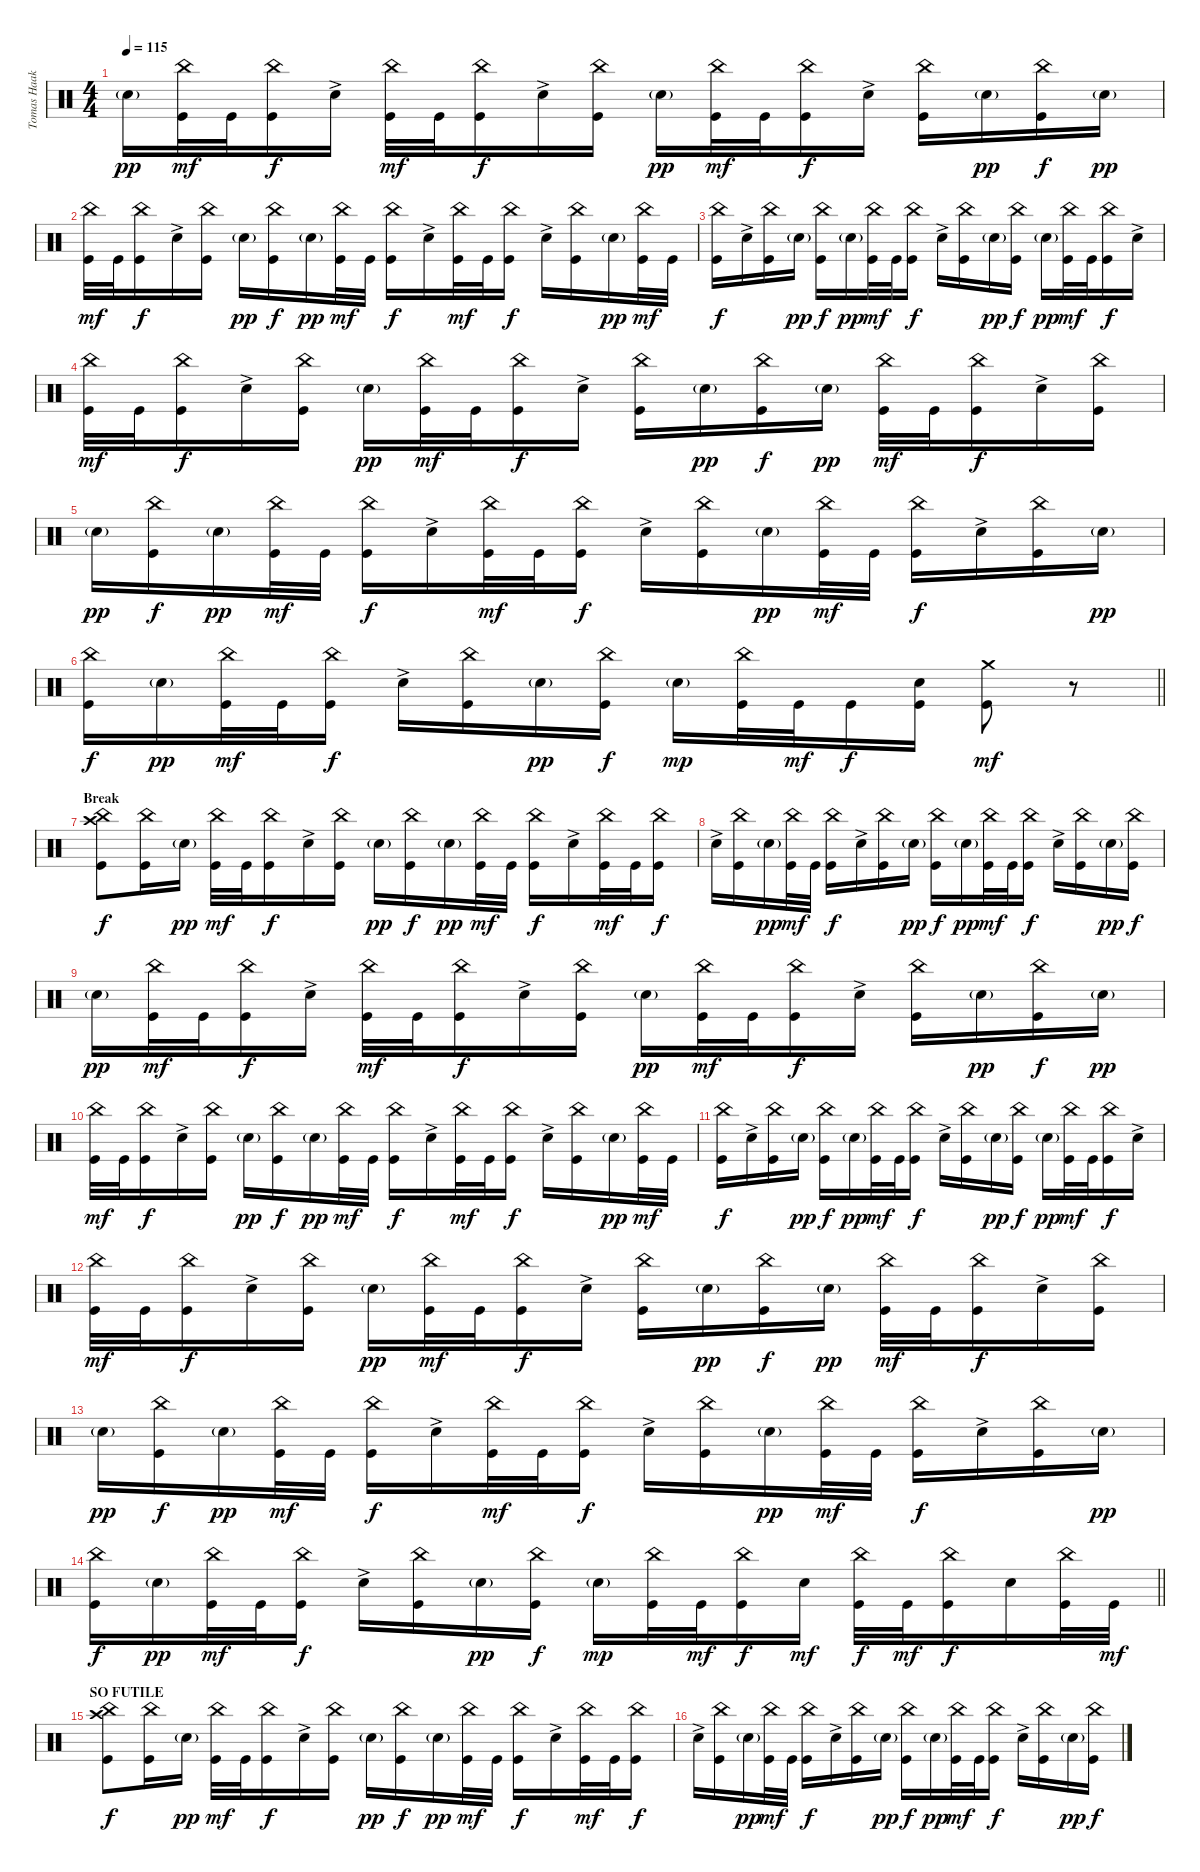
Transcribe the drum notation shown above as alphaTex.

\track ("Tomas Haake (Drums)" "Tomas Haak") {instrument percussion}
\staff {score}
\articulation defaults
\ts (4 4)
\tempo 115
\clef neutral
\ks c "Electric Snare (hit)"{g}.16{dy pp}
("China (hit)" "Kick (hit)").32{dy mf} "Kick (hit)".32 ("China (hit)" "Kick (hit)").16{dy f} "Electric Snare (hit)"{ac}.16 ("China (hit)" "Kick (hit)").32{dy mf} "Kick (hit)".32 ("China (hit)" "Kick (hit)").16{dy f} "Electric Snare (hit)"{ac}.16 ("China (hit)" "Kick (hit)").16 "Electric Snare (hit)"{g}.16{dy pp} ("China (hit)" "Kick (hit)").32{dy mf} "Kick (hit)".32 ("China (hit)" "Kick (hit)").16{dy f} "Electric Snare (hit)"{ac}.16 ("China (hit)" "Kick (hit)").16 "Electric Snare (hit)"{g}.16{dy pp} ("China (hit)" "Kick (hit)").16{dy f} "Electric Snare (hit)"{g}.16{dy pp} |
("China (hit)" "Kick (hit)").32{dy mf} "Kick (hit)".32 ("China (hit)" "Kick (hit)").16{dy f} "Electric Snare (hit)"{ac}.16 ("China (hit)" "Kick (hit)").16 "Electric Snare (hit)"{g}.16{dy pp} ("China (hit)" "Kick (hit)").16{dy f} "Electric Snare (hit)"{g}.16{dy pp} ("China (hit)" "Kick (hit)").32{dy mf} "Kick (hit)".32 ("China (hit)" "Kick (hit)").16{dy f} "Electric Snare (hit)"{ac}.16 ("China (hit)" "Kick (hit)").32{dy mf} "Kick (hit)".32 ("China (hit)" "Kick (hit)").16{dy f} "Electric Snare (hit)"{ac}.16 ("China (hit)" "Kick (hit)").16 "Electric Snare (hit)"{g}.16{dy pp} ("China (hit)" "Kick (hit)").32{dy mf} "Kick (hit)".32 |
("China (hit)" "Kick (hit)").16{dy f} "Electric Snare (hit)"{ac}.16 ("China (hit)" "Kick (hit)").16 "Electric Snare (hit)"{g}.16{dy pp} ("China (hit)" "Kick (hit)").16{dy f} "Electric Snare (hit)"{g}.16{dy pp} ("China (hit)" "Kick (hit)").32{dy mf} "Kick (hit)".32 ("China (hit)" "Kick (hit)").16{dy f} "Electric Snare (hit)"{ac}.16 ("China (hit)" "Kick (hit)").16 "Electric Snare (hit)"{g}.16{dy pp} ("China (hit)" "Kick (hit)").16{dy f} "Electric Snare (hit)"{g}.16{dy pp} ("China (hit)" "Kick (hit)").32{dy mf} "Kick (hit)".32 ("China (hit)" "Kick (hit)").16{dy f} "Electric Snare (hit)"{ac}.16 |
("China (hit)" "Kick (hit)").32{dy mf} "Kick (hit)".32 ("China (hit)" "Kick (hit)").16{dy f} "Electric Snare (hit)"{ac}.16 ("China (hit)" "Kick (hit)").16 "Electric Snare (hit)"{g}.16{dy pp} ("China (hit)" "Kick (hit)").32{dy mf} "Kick (hit)".32 ("China (hit)" "Kick (hit)").16{dy f} "Electric Snare (hit)"{ac}.16 ("China (hit)" "Kick (hit)").16 "Electric Snare (hit)"{g}.16{dy pp} ("China (hit)" "Kick (hit)").16{dy f} "Electric Snare (hit)"{g}.16{dy pp} ("China (hit)" "Kick (hit)").32{dy mf} "Kick (hit)".32 ("China (hit)" "Kick (hit)").16{dy f} "Electric Snare (hit)"{ac}.16 ("China (hit)" "Kick (hit)").16 |
"Electric Snare (hit)"{g}.16{dy pp} ("China (hit)" "Kick (hit)").16{dy f} "Electric Snare (hit)"{g}.16{dy pp} ("China (hit)" "Kick (hit)").32{dy mf} "Kick (hit)".32 ("China (hit)" "Kick (hit)").16{dy f} "Electric Snare (hit)"{ac}.16 ("China (hit)" "Kick (hit)").32{dy mf} "Kick (hit)".32 ("China (hit)" "Kick (hit)").16{dy f} "Electric Snare (hit)"{ac}.16 ("China (hit)" "Kick (hit)").16 "Electric Snare (hit)"{g}.16{dy pp} ("China (hit)" "Kick (hit)").32{dy mf} "Kick (hit)".32 ("China (hit)" "Kick (hit)").16{dy f} "Electric Snare (hit)"{ac}.16 ("China (hit)" "Kick (hit)").16 "Electric Snare (hit)"{g}.16{dy pp} |
\barLineRight lightlight
("China (hit)" "Kick (hit)").16{dy f} "Electric Snare (hit)"{g}.16{dy pp} ("China (hit)" "Kick (hit)").32{dy mf} "Kick (hit)".32 ("China (hit)" "Kick (hit)").16{dy f} "Electric Snare (hit)"{ac}.16 ("China (hit)" "Kick (hit)").16 "Electric Snare (hit)"{g}.16{dy pp} ("China (hit)" "Kick (hit)").16{dy f} "Electric Snare (hit)"{g}.16{dy mp} ("China (hit)" "Kick (hit)").32 "Kick (hit)".32{dy mf} "Kick (hit)".16{dy f} ("Electric Snare (hit)" "Kick (hit)").16 ("Crash medium (hit)" "Kick (hit)").8{dy mf} r.8 |
\section ("" "Break")
("China (hit)" "Crash high (hit)" "Kick (hit)").8{dy f} ("China (hit)" "Kick (hit)").16 "Electric Snare (hit)"{g}.16{dy pp} ("China (hit)" "Kick (hit)").32{dy mf} "Kick (hit)".32 ("China (hit)" "Kick (hit)").16{dy f} "Electric Snare (hit)"{ac}.16 ("China (hit)" "Kick (hit)").16 "Electric Snare (hit)"{g}.16{dy pp} ("China (hit)" "Kick (hit)").16{dy f} "Electric Snare (hit)"{g}.16{dy pp} ("China (hit)" "Kick (hit)").32{dy mf} "Kick (hit)".32 ("China (hit)" "Kick (hit)").16{dy f} "Electric Snare (hit)"{ac}.16 ("China (hit)" "Kick (hit)").32{dy mf} "Kick (hit)".32 ("China (hit)" "Kick (hit)").16{dy f} |
"Electric Snare (hit)"{ac}.16 ("China (hit)" "Kick (hit)").16 "Electric Snare (hit)"{g}.16{dy pp} ("China (hit)" "Kick (hit)").32{dy mf} "Kick (hit)".32 ("China (hit)" "Kick (hit)").16{dy f} "Electric Snare (hit)"{ac}.16 ("China (hit)" "Kick (hit)").16 "Electric Snare (hit)"{g}.16{dy pp} ("China (hit)" "Kick (hit)").16{dy f} "Electric Snare (hit)"{g}.16{dy pp} ("China (hit)" "Kick (hit)").32{dy mf} "Kick (hit)".32 ("China (hit)" "Kick (hit)").16{dy f} "Electric Snare (hit)"{ac}.16 ("China (hit)" "Kick (hit)").16 "Electric Snare (hit)"{g}.16{dy pp} ("China (hit)" "Kick (hit)").16{dy f} |
"Electric Snare (hit)"{g}.16{dy pp} ("China (hit)" "Kick (hit)").32{dy mf} "Kick (hit)".32 ("China (hit)" "Kick (hit)").16{dy f} "Electric Snare (hit)"{ac}.16 ("China (hit)" "Kick (hit)").32{dy mf} "Kick (hit)".32 ("China (hit)" "Kick (hit)").16{dy f} "Electric Snare (hit)"{ac}.16 ("China (hit)" "Kick (hit)").16 "Electric Snare (hit)"{g}.16{dy pp} ("China (hit)" "Kick (hit)").32{dy mf} "Kick (hit)".32 ("China (hit)" "Kick (hit)").16{dy f} "Electric Snare (hit)"{ac}.16 ("China (hit)" "Kick (hit)").16 "Electric Snare (hit)"{g}.16{dy pp} ("China (hit)" "Kick (hit)").16{dy f} "Electric Snare (hit)"{g}.16{dy pp} |
("China (hit)" "Kick (hit)").32{dy mf} "Kick (hit)".32 ("China (hit)" "Kick (hit)").16{dy f} "Electric Snare (hit)"{ac}.16 ("China (hit)" "Kick (hit)").16 "Electric Snare (hit)"{g}.16{dy pp} ("China (hit)" "Kick (hit)").16{dy f} "Electric Snare (hit)"{g}.16{dy pp} ("China (hit)" "Kick (hit)").32{dy mf} "Kick (hit)".32 ("China (hit)" "Kick (hit)").16{dy f} "Electric Snare (hit)"{ac}.16 ("China (hit)" "Kick (hit)").32{dy mf} "Kick (hit)".32 ("China (hit)" "Kick (hit)").16{dy f} "Electric Snare (hit)"{ac}.16 ("China (hit)" "Kick (hit)").16 "Electric Snare (hit)"{g}.16{dy pp} ("China (hit)" "Kick (hit)").32{dy mf} "Kick (hit)".32 |
("China (hit)" "Kick (hit)").16{dy f} "Electric Snare (hit)"{ac}.16 ("China (hit)" "Kick (hit)").16 "Electric Snare (hit)"{g}.16{dy pp} ("China (hit)" "Kick (hit)").16{dy f} "Electric Snare (hit)"{g}.16{dy pp} ("China (hit)" "Kick (hit)").32{dy mf} "Kick (hit)".32 ("China (hit)" "Kick (hit)").16{dy f} "Electric Snare (hit)"{ac}.16 ("China (hit)" "Kick (hit)").16 "Electric Snare (hit)"{g}.16{dy pp} ("China (hit)" "Kick (hit)").16{dy f} "Electric Snare (hit)"{g}.16{dy pp} ("China (hit)" "Kick (hit)").32{dy mf} "Kick (hit)".32 ("China (hit)" "Kick (hit)").16{dy f} "Electric Snare (hit)"{ac}.16 |
("China (hit)" "Kick (hit)").32{dy mf} "Kick (hit)".32 ("China (hit)" "Kick (hit)").16{dy f} "Electric Snare (hit)"{ac}.16 ("China (hit)" "Kick (hit)").16 "Electric Snare (hit)"{g}.16{dy pp} ("China (hit)" "Kick (hit)").32{dy mf} "Kick (hit)".32 ("China (hit)" "Kick (hit)").16{dy f} "Electric Snare (hit)"{ac}.16 ("China (hit)" "Kick (hit)").16 "Electric Snare (hit)"{g}.16{dy pp} ("China (hit)" "Kick (hit)").16{dy f} "Electric Snare (hit)"{g}.16{dy pp} ("China (hit)" "Kick (hit)").32{dy mf} "Kick (hit)".32 ("China (hit)" "Kick (hit)").16{dy f} "Electric Snare (hit)"{ac}.16 ("China (hit)" "Kick (hit)").16 |
"Electric Snare (hit)"{g}.16{dy pp} ("China (hit)" "Kick (hit)").16{dy f} "Electric Snare (hit)"{g}.16{dy pp} ("China (hit)" "Kick (hit)").32{dy mf} "Kick (hit)".32 ("China (hit)" "Kick (hit)").16{dy f} "Electric Snare (hit)"{ac}.16 ("China (hit)" "Kick (hit)").32{dy mf} "Kick (hit)".32 ("China (hit)" "Kick (hit)").16{dy f} "Electric Snare (hit)"{ac}.16 ("China (hit)" "Kick (hit)").16 "Electric Snare (hit)"{g}.16{dy pp} ("China (hit)" "Kick (hit)").32{dy mf} "Kick (hit)".32 ("China (hit)" "Kick (hit)").16{dy f} "Electric Snare (hit)"{ac}.16 ("China (hit)" "Kick (hit)").16 "Electric Snare (hit)"{g}.16{dy pp} |
\barLineRight lightlight
("China (hit)" "Kick (hit)").16{dy f} "Electric Snare (hit)"{g}.16{dy pp} ("China (hit)" "Kick (hit)").32{dy mf} "Kick (hit)".32 ("China (hit)" "Kick (hit)").16{dy f} "Electric Snare (hit)"{ac}.16 ("China (hit)" "Kick (hit)").16 "Electric Snare (hit)"{g}.16{dy pp} ("China (hit)" "Kick (hit)").16{dy f} "Electric Snare (hit)"{g}.16{dy mp} ("China (hit)" "Kick (hit)").32 "Kick (hit)".32{dy mf} ("China (hit)" "Kick (hit)").16{dy f} "Electric Snare (hit)".16{dy mf} ("China (hit)" "Kick (hit)").32{dy f} "Kick (hit)".32{dy mf} ("China (hit)" "Kick (hit)").16{dy f} "Electric Snare (hit)".16 ("China (hit)" "Kick (hit)").32 "Kick (hit)".32{dy mf} |
\section ("" "SO FUTILE")
("China (hit)" "Crash high (hit)" "Kick (hit)").8{dy f} ("China (hit)" "Kick (hit)").16 "Electric Snare (hit)"{g}.16{dy pp} ("China (hit)" "Kick (hit)").32{dy mf} "Kick (hit)".32 ("China (hit)" "Kick (hit)").16{dy f} "Electric Snare (hit)"{ac}.16 ("China (hit)" "Kick (hit)").16 "Electric Snare (hit)"{g}.16{dy pp} ("China (hit)" "Kick (hit)").16{dy f} "Electric Snare (hit)"{g}.16{dy pp} ("China (hit)" "Kick (hit)").32{dy mf} "Kick (hit)".32 ("China (hit)" "Kick (hit)").16{dy f} "Electric Snare (hit)"{ac}.16 ("China (hit)" "Kick (hit)").32{dy mf} "Kick (hit)".32 ("China (hit)" "Kick (hit)").16{dy f} |
"Electric Snare (hit)"{ac}.16 ("China (hit)" "Kick (hit)").16 "Electric Snare (hit)"{g}.16{dy pp} ("China (hit)" "Kick (hit)").32{dy mf} "Kick (hit)".32 ("China (hit)" "Kick (hit)").16{dy f} "Electric Snare (hit)"{ac}.16 ("China (hit)" "Kick (hit)").16 "Electric Snare (hit)"{g}.16{dy pp} ("China (hit)" "Kick (hit)").16{dy f} "Electric Snare (hit)"{g}.16{dy pp} ("China (hit)" "Kick (hit)").32{dy mf} "Kick (hit)".32 ("China (hit)" "Kick (hit)").16{dy f} "Electric Snare (hit)"{ac}.16 ("China (hit)" "Kick (hit)").16 "Electric Snare (hit)"{g}.16{dy pp} ("China (hit)" "Kick (hit)").16{dy f}
